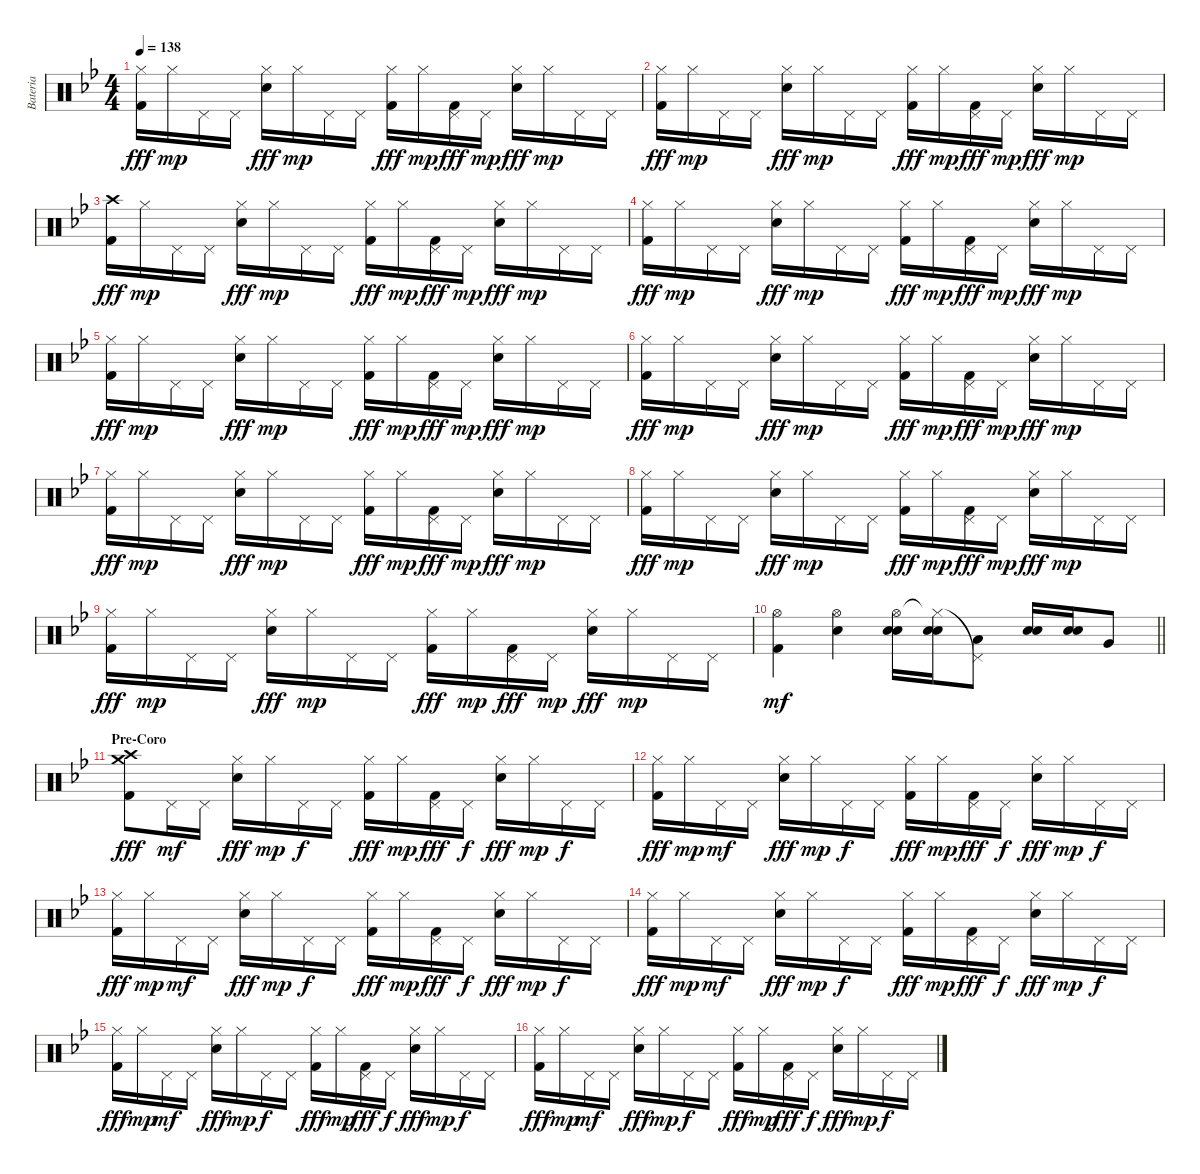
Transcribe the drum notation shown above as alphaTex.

\track ("Bateria" "Bateria") {instrument percussion}
\staff {score}
\articulation defaults
\ts (4 4)
\tempo 138
\clef neutral
\ks bb
("Hi-Hat (closed)" "Kick (hit) 2").16{dy fff} "Hi-Hat (closed)".16{dy mp} "Pedal Hi-Hat (hit)".16 "Pedal Hi-Hat (hit)".16 ("Hi-Hat (closed)" "Snare (hit) 2").16{dy fff} "Hi-Hat (closed)".16{dy mp} "Pedal Hi-Hat (hit)".16 "Pedal Hi-Hat (hit)".16 ("Hi-Hat (closed)" "Kick (hit) 2").16{dy fff} "Hi-Hat (closed)".16{dy mp} ("Pedal Hi-Hat (hit)" "Kick (hit) 2").16{dy fff} "Pedal Hi-Hat (hit)".16{dy mp} ("Hi-Hat (closed)" "Snare (hit) 2").16{dy fff} "Hi-Hat (closed)".16{dy mp} "Pedal Hi-Hat (hit)".16 "Pedal Hi-Hat (hit)".16 |
("Hi-Hat (closed)" "Kick (hit) 2").16{dy fff} "Hi-Hat (closed)".16{dy mp} "Pedal Hi-Hat (hit)".16 "Pedal Hi-Hat (hit)".16 ("Hi-Hat (closed)" "Snare (hit) 2").16{dy fff} "Hi-Hat (closed)".16{dy mp} "Pedal Hi-Hat (hit)".16 "Pedal Hi-Hat (hit)".16 ("Hi-Hat (closed)" "Kick (hit) 2").16{dy fff} "Hi-Hat (closed)".16{dy mp} ("Pedal Hi-Hat (hit)" "Kick (hit) 2").16{dy fff} "Pedal Hi-Hat (hit)".16{dy mp} ("Hi-Hat (closed)" "Snare (hit) 2").16{dy fff} "Hi-Hat (closed)".16{dy mp} "Pedal Hi-Hat (hit)".16 "Pedal Hi-Hat (hit)".16 |
("Crash high (hit)" "Kick (hit) 2").16{dy fff} "Hi-Hat (closed)".16{dy mp} "Pedal Hi-Hat (hit)".16 "Pedal Hi-Hat (hit)".16 ("Hi-Hat (closed)" "Snare (hit) 2").16{dy fff} "Hi-Hat (closed)".16{dy mp} "Pedal Hi-Hat (hit)".16 "Pedal Hi-Hat (hit)".16 ("Hi-Hat (closed)" "Kick (hit) 2").16{dy fff} "Hi-Hat (closed)".16{dy mp} ("Pedal Hi-Hat (hit)" "Kick (hit) 2").16{dy fff} "Pedal Hi-Hat (hit)".16{dy mp} ("Hi-Hat (closed)" "Snare (hit) 2").16{dy fff} "Hi-Hat (closed)".16{dy mp} "Pedal Hi-Hat (hit)".16 "Pedal Hi-Hat (hit)".16 |
("Hi-Hat (closed)" "Kick (hit) 2").16{dy fff} "Hi-Hat (closed)".16{dy mp} "Pedal Hi-Hat (hit)".16 "Pedal Hi-Hat (hit)".16 ("Hi-Hat (closed)" "Snare (hit) 2").16{dy fff} "Hi-Hat (closed)".16{dy mp} "Pedal Hi-Hat (hit)".16 "Pedal Hi-Hat (hit)".16 ("Hi-Hat (closed)" "Kick (hit) 2").16{dy fff} "Hi-Hat (closed)".16{dy mp} ("Pedal Hi-Hat (hit)" "Kick (hit) 2").16{dy fff} "Pedal Hi-Hat (hit)".16{dy mp} ("Hi-Hat (closed)" "Snare (hit) 2").16{dy fff} "Hi-Hat (closed)".16{dy mp} "Pedal Hi-Hat (hit)".16 "Pedal Hi-Hat (hit)".16 |
("Hi-Hat (closed)" "Kick (hit) 2").16{dy fff} "Hi-Hat (closed)".16{dy mp} "Pedal Hi-Hat (hit)".16 "Pedal Hi-Hat (hit)".16 ("Hi-Hat (closed)" "Snare (hit) 2").16{dy fff} "Hi-Hat (closed)".16{dy mp} "Pedal Hi-Hat (hit)".16 "Pedal Hi-Hat (hit)".16 ("Hi-Hat (closed)" "Kick (hit) 2").16{dy fff} "Hi-Hat (closed)".16{dy mp} ("Pedal Hi-Hat (hit)" "Kick (hit) 2").16{dy fff} "Pedal Hi-Hat (hit)".16{dy mp} ("Hi-Hat (closed)" "Snare (hit) 2").16{dy fff} "Hi-Hat (closed)".16{dy mp} "Pedal Hi-Hat (hit)".16 "Pedal Hi-Hat (hit)".16 |
("Hi-Hat (closed)" "Kick (hit) 2").16{dy fff} "Hi-Hat (closed)".16{dy mp} "Pedal Hi-Hat (hit)".16 "Pedal Hi-Hat (hit)".16 ("Hi-Hat (closed)" "Snare (hit) 2").16{dy fff} "Hi-Hat (closed)".16{dy mp} "Pedal Hi-Hat (hit)".16 "Pedal Hi-Hat (hit)".16 ("Hi-Hat (closed)" "Kick (hit) 2").16{dy fff} "Hi-Hat (closed)".16{dy mp} ("Pedal Hi-Hat (hit)" "Kick (hit) 2").16{dy fff} "Pedal Hi-Hat (hit)".16{dy mp} ("Hi-Hat (closed)" "Snare (hit) 2").16{dy fff} "Hi-Hat (closed)".16{dy mp} "Pedal Hi-Hat (hit)".16 "Pedal Hi-Hat (hit)".16 |
("Hi-Hat (closed)" "Kick (hit) 2").16{dy fff} "Hi-Hat (closed)".16{dy mp} "Pedal Hi-Hat (hit)".16 "Pedal Hi-Hat (hit)".16 ("Hi-Hat (closed)" "Snare (hit) 2").16{dy fff} "Hi-Hat (closed)".16{dy mp} "Pedal Hi-Hat (hit)".16 "Pedal Hi-Hat (hit)".16 ("Hi-Hat (closed)" "Kick (hit) 2").16{dy fff} "Hi-Hat (closed)".16{dy mp} ("Pedal Hi-Hat (hit)" "Kick (hit) 2").16{dy fff} "Pedal Hi-Hat (hit)".16{dy mp} ("Hi-Hat (closed)" "Snare (hit) 2").16{dy fff} "Hi-Hat (closed)".16{dy mp} "Pedal Hi-Hat (hit)".16 "Pedal Hi-Hat (hit)".16 |
("Hi-Hat (closed)" "Kick (hit) 2").16{dy fff} "Hi-Hat (closed)".16{dy mp} "Pedal Hi-Hat (hit)".16 "Pedal Hi-Hat (hit)".16 ("Hi-Hat (closed)" "Snare (hit) 2").16{dy fff} "Hi-Hat (closed)".16{dy mp} "Pedal Hi-Hat (hit)".16 "Pedal Hi-Hat (hit)".16 ("Hi-Hat (closed)" "Kick (hit) 2").16{dy fff} "Hi-Hat (closed)".16{dy mp} ("Pedal Hi-Hat (hit)" "Kick (hit) 2").16{dy fff} "Pedal Hi-Hat (hit)".16{dy mp} ("Hi-Hat (closed)" "Snare (hit) 2").16{dy fff} "Hi-Hat (closed)".16{dy mp} "Pedal Hi-Hat (hit)".16 "Pedal Hi-Hat (hit)".16 |
("Hi-Hat (closed)" "Kick (hit) 2").16{dy fff} "Hi-Hat (closed)".16{dy mp} "Pedal Hi-Hat (hit)".16 "Pedal Hi-Hat (hit)".16 ("Hi-Hat (closed)" "Snare (hit) 2").16{dy fff} "Hi-Hat (closed)".16{dy mp} "Pedal Hi-Hat (hit)".16 "Pedal Hi-Hat (hit)".16 ("Hi-Hat (closed)" "Kick (hit) 2").16{dy fff} "Hi-Hat (closed)".16{dy mp} ("Pedal Hi-Hat (hit)" "Kick (hit) 2").16{dy fff} "Pedal Hi-Hat (hit)".16{dy mp} ("Hi-Hat (closed)" "Snare (hit) 2").16{dy fff} "Hi-Hat (closed)".16{dy mp} "Pedal Hi-Hat (hit)".16 "Pedal Hi-Hat (hit)".16 |
\barLineRight lightlight
("Hi-Hat (open)" "Kick (hit) 2").4{dy mf} ("Hi-Hat (open)" "Electric Snare (hit)").4 ("Hi-Hat (open)" "Electric Snare (hit)" "Electric Snare (hit)").16 ("Hi-Hat (closed)"{t} "Electric Snare (hit)" "Snare (hit) 2").16 ("Pedal Hi-Hat (hit)"{t} "Low Tom (hit)").8 ("Electric Snare (hit)" "Electric Snare (hit)").16 ("Electric Snare (hit)" "Snare (hit) 2").16 "Very Low Tom (hit)".8 |
\section ("" "Pre-Coro")
("Crash high (hit)" "Crash medium (hit)" "Kick (hit) 2").8{dy fff} "Pedal Hi-Hat (hit)".16{dy mf} "Pedal Hi-Hat (hit)".16 ("Hi-Hat (closed)" "Snare (hit) 2").16{dy fff} "Hi-Hat (closed)".16{dy mp} "Pedal Hi-Hat (hit)".16{dy f} "Pedal Hi-Hat (hit)".16 ("Hi-Hat (closed)" "Kick (hit) 2").16{dy fff} "Hi-Hat (closed)".16{dy mp} ("Pedal Hi-Hat (hit)" "Kick (hit) 2").16{dy fff} "Pedal Hi-Hat (hit)".16{dy f} ("Hi-Hat (closed)" "Snare (hit) 2").16{dy fff} "Hi-Hat (closed)".16{dy mp} "Pedal Hi-Hat (hit)".16{dy f} "Pedal Hi-Hat (hit)".16 |
("Hi-Hat (closed)" "Kick (hit) 2").16{dy fff} "Hi-Hat (closed)".16{dy mp} "Pedal Hi-Hat (hit)".16{dy mf} "Pedal Hi-Hat (hit)".16 ("Hi-Hat (closed)" "Snare (hit) 2").16{dy fff} "Hi-Hat (closed)".16{dy mp} "Pedal Hi-Hat (hit)".16{dy f} "Pedal Hi-Hat (hit)".16 ("Hi-Hat (closed)" "Kick (hit) 2").16{dy fff} "Hi-Hat (closed)".16{dy mp} ("Pedal Hi-Hat (hit)" "Kick (hit) 2").16{dy fff} "Pedal Hi-Hat (hit)".16{dy f} ("Hi-Hat (closed)" "Snare (hit) 2").16{dy fff} "Hi-Hat (closed)".16{dy mp} "Pedal Hi-Hat (hit)".16{dy f} "Pedal Hi-Hat (hit)".16 |
("Hi-Hat (closed)" "Kick (hit) 2").16{dy fff} "Hi-Hat (closed)".16{dy mp} "Pedal Hi-Hat (hit)".16{dy mf} "Pedal Hi-Hat (hit)".16 ("Hi-Hat (closed)" "Snare (hit) 2").16{dy fff} "Hi-Hat (closed)".16{dy mp} "Pedal Hi-Hat (hit)".16{dy f} "Pedal Hi-Hat (hit)".16 ("Hi-Hat (closed)" "Kick (hit) 2").16{dy fff} "Hi-Hat (closed)".16{dy mp} ("Pedal Hi-Hat (hit)" "Kick (hit) 2").16{dy fff} "Pedal Hi-Hat (hit)".16{dy f} ("Hi-Hat (closed)" "Snare (hit) 2").16{dy fff} "Hi-Hat (closed)".16{dy mp} "Pedal Hi-Hat (hit)".16{dy f} "Pedal Hi-Hat (hit)".16 |
("Hi-Hat (closed)" "Kick (hit) 2").16{dy fff} "Hi-Hat (closed)".16{dy mp} "Pedal Hi-Hat (hit)".16{dy mf} "Pedal Hi-Hat (hit)".16 ("Hi-Hat (closed)" "Snare (hit) 2").16{dy fff} "Hi-Hat (closed)".16{dy mp} "Pedal Hi-Hat (hit)".16{dy f} "Pedal Hi-Hat (hit)".16 ("Hi-Hat (closed)" "Kick (hit) 2").16{dy fff} "Hi-Hat (closed)".16{dy mp} ("Pedal Hi-Hat (hit)" "Kick (hit) 2").16{dy fff} "Pedal Hi-Hat (hit)".16{dy f} ("Hi-Hat (closed)" "Snare (hit) 2").16{dy fff} "Hi-Hat (closed)".16{dy mp} "Pedal Hi-Hat (hit)".16{dy f} "Pedal Hi-Hat (hit)".16 |
("Hi-Hat (closed)" "Kick (hit) 2").16{dy fff} "Hi-Hat (closed)".16{dy mp} "Pedal Hi-Hat (hit)".16{dy mf} "Pedal Hi-Hat (hit)".16 ("Hi-Hat (closed)" "Snare (hit) 2").16{dy fff} "Hi-Hat (closed)".16{dy mp} "Pedal Hi-Hat (hit)".16{dy f} "Pedal Hi-Hat (hit)".16 ("Hi-Hat (closed)" "Kick (hit) 2").16{dy fff} "Hi-Hat (closed)".16{dy mp} ("Pedal Hi-Hat (hit)" "Kick (hit) 2").16{dy fff} "Pedal Hi-Hat (hit)".16{dy f} ("Hi-Hat (closed)" "Snare (hit) 2").16{dy fff} "Hi-Hat (closed)".16{dy mp} "Pedal Hi-Hat (hit)".16{dy f} "Pedal Hi-Hat (hit)".16 |
("Hi-Hat (closed)" "Kick (hit) 2").16{dy fff} "Hi-Hat (closed)".16{dy mp} "Pedal Hi-Hat (hit)".16{dy mf} "Pedal Hi-Hat (hit)".16 ("Hi-Hat (closed)" "Snare (hit) 2").16{dy fff} "Hi-Hat (closed)".16{dy mp} "Pedal Hi-Hat (hit)".16{dy f} "Pedal Hi-Hat (hit)".16 ("Hi-Hat (closed)" "Kick (hit) 2").16{dy fff} "Hi-Hat (closed)".16{dy mp} ("Pedal Hi-Hat (hit)" "Kick (hit) 2").16{dy fff} "Pedal Hi-Hat (hit)".16{dy f} ("Hi-Hat (closed)" "Snare (hit) 2").16{dy fff} "Hi-Hat (closed)".16{dy mp} "Pedal Hi-Hat (hit)".16{dy f} "Pedal Hi-Hat (hit)".16
